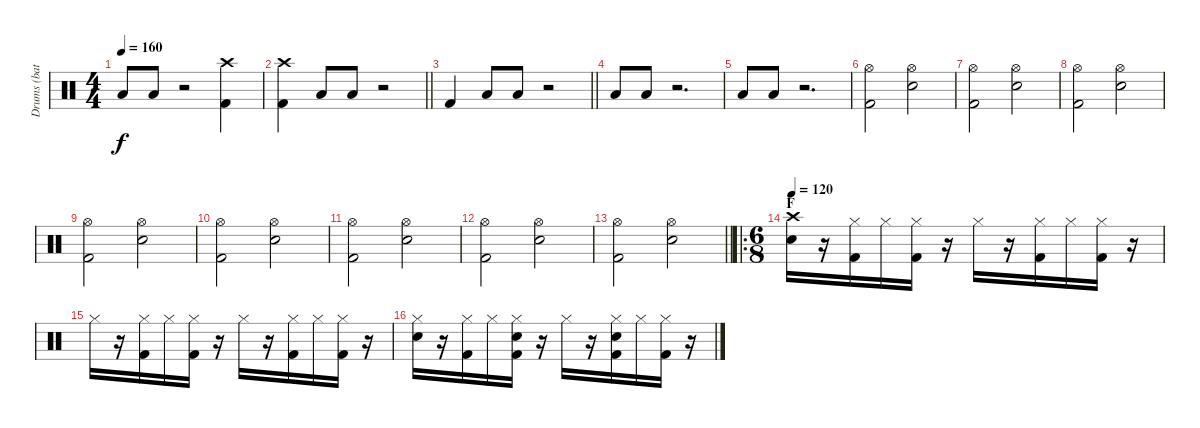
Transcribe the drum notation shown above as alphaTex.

\track ("Drums (bateria)" "Drums (bat") {instrument percussion}
\staff {score}
\articulation defaults
\ts (4 4)
\tempo 160
\clef neutral
\ks c "Low Tom (hit)".8{dy f} "Low Tom (hit)".8
r.2 ("Kick (hit) 2" "Crash high (hit)").4 |
\barLineRight lightlight
("Kick (hit) 2" "Crash high (hit)").4 "Low Tom (hit)".8 "Low Tom (hit)".8 r.2 |
\barLineRight lightlight "Kick (hit) 2".4 "Low Tom (hit)".8 "Low Tom (hit)".8
r.2 |
"Low Tom (hit)".8 "Low Tom (hit)".8 r.2{d} |
"Low Tom (hit)".8 "Low Tom (hit)".8 r.2{d} |
("Kick (hit) 2" "Hi-Hat (open)").2 ("Snare (hit) 2" "Hi-Hat (open)").2 |
("Kick (hit) 2" "Hi-Hat (open)").2 ("Snare (hit) 2" "Hi-Hat (open)").2 |
("Kick (hit) 2" "Hi-Hat (open)").2 ("Snare (hit) 2" "Hi-Hat (open)").2 |
("Kick (hit) 2" "Hi-Hat (open)").2 ("Snare (hit) 2" "Hi-Hat (open)").2 |
("Kick (hit) 2" "Hi-Hat (open)").2 ("Snare (hit) 2" "Hi-Hat (open)").2 |
("Kick (hit) 2" "Hi-Hat (open)").2 ("Snare (hit) 2" "Hi-Hat (open)").2 |
("Kick (hit) 2" "Hi-Hat (open)").2 ("Snare (hit) 2" "Hi-Hat (open)").2 |
\barLineRight lightlight
("Kick (hit) 2" "Hi-Hat (open)").2 ("Snare (hit) 2" "Hi-Hat (open)").2 |
\ro
\ts (6 8)
\section ("" "F")
\tempo 120
("Snare (hit) 2" "Crash high (hit)").16 r.16 ("Hi-Hat (closed)" "Kick (hit) 2").16 "Hi-Hat (closed)".16 ("Hi-Hat (closed)" "Kick (hit) 2").16 r.16 "Hi-Hat (closed)".16 r.16 ("Hi-Hat (closed)" "Kick (hit) 2").16 "Hi-Hat (closed)".16 ("Hi-Hat (closed)" "Kick (hit) 2").16 r.16 |
"Hi-Hat (closed)".16 r.16 ("Hi-Hat (closed)" "Kick (hit) 2").16 "Hi-Hat (closed)".16 ("Hi-Hat (closed)" "Kick (hit) 2").16 r.16 "Hi-Hat (closed)".16 r.16 ("Hi-Hat (closed)" "Kick (hit) 2").16 "Hi-Hat (closed)".16 ("Hi-Hat (closed)" "Kick (hit) 2").16 r.16 |
("Hi-Hat (closed)" "Snare (hit) 2").16 r.16 ("Hi-Hat (closed)" "Kick (hit) 2").16 "Hi-Hat (closed)".16 ("Hi-Hat (closed)" "Kick (hit) 2" "Snare (hit) 2").16 r.16 "Hi-Hat (closed)".16 r.16 ("Hi-Hat (closed)" "Kick (hit) 2" "Snare (hit) 2").16 "Hi-Hat (closed)".16 ("Hi-Hat (closed)" "Kick (hit) 2").16 r.16
